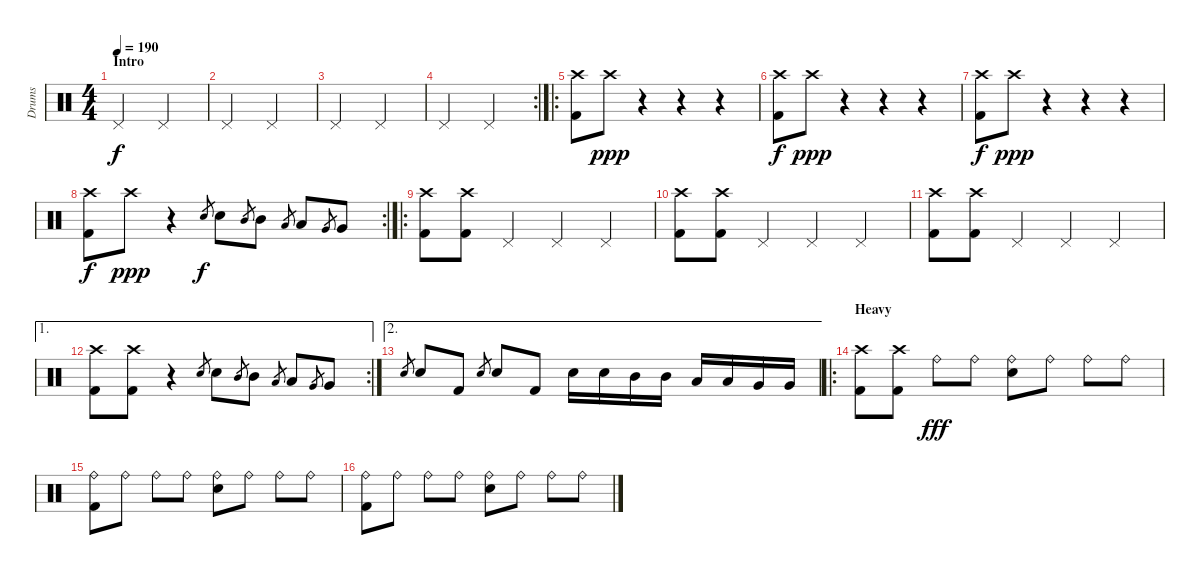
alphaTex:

\track ("Drums" "Drums") {instrument percussion}
\staff {score}
\articulation defaults
\ts (4 4)
\section ("" "Intro")
\tempo 190
\clef neutral
\ks c "Pedal Hi-Hat (hit)".2{dy f} "Pedal Hi-Hat (hit)".2
|
"Pedal Hi-Hat (hit)".2 "Pedal Hi-Hat (hit)".2 |
"Pedal Hi-Hat (hit)".2 "Pedal Hi-Hat (hit)".2 |
\rc 2 "Pedal Hi-Hat (hit)".2 "Pedal Hi-Hat (hit)".2
|
\ro
("Crash high (hit)" "Kick (hit) 2").8 "Crash high (hit)".8{dy ppp} r.4 r.4 r.4 |
("Crash high (hit)" "Kick (hit) 2").8{dy f} "Crash high (hit)".8{dy ppp} r.4 r.4 r.4 |
("Crash high (hit)" "Kick (hit) 2").8{dy f} "Crash high (hit)".8{dy ppp} r.4 r.4 r.4 |
\rc 2
("Crash high (hit)" "Kick (hit) 2").8{dy f} "Crash high (hit)".8{dy ppp} r.4 "Electric Snare (hit)".8{gr dy f} "Electric Snare (hit)".8 "Mid Tom (hit)".8{gr} "Mid Tom (hit)".8 "Low Tom (hit)".8{gr} "Low Tom (hit)".8 "Very Low Tom (hit)".8{gr} "Very Low Tom (hit)".8 |
\ro
("Crash high (hit)" "Kick (hit) 2").8 ("Crash high (hit)" "Kick (hit) 2").8 "Pedal Hi-Hat (hit)".4 "Pedal Hi-Hat (hit)".4 "Pedal Hi-Hat (hit)".4 |
("Crash high (hit)" "Kick (hit) 2").8 ("Crash high (hit)" "Kick (hit) 2").8 "Pedal Hi-Hat (hit)".4 "Pedal Hi-Hat (hit)".4 "Pedal Hi-Hat (hit)".4 |
("Crash high (hit)" "Kick (hit) 2").8 ("Crash high (hit)" "Kick (hit) 2").8 "Pedal Hi-Hat (hit)".4 "Pedal Hi-Hat (hit)".4 "Pedal Hi-Hat (hit)".4 |
\ae 1
\rc 2
("Crash high (hit)" "Kick (hit) 2").8 ("Crash high (hit)" "Kick (hit) 2").8 r.4 "Electric Snare (hit)".8{gr} "Electric Snare (hit)".8 "Mid Tom (hit)".8{gr} "Mid Tom (hit)".8 "Low Tom (hit)".8{gr} "Low Tom (hit)".8 "Very Low Tom (hit)".8{gr} "Very Low Tom (hit)".8 |
\ae 2 "Electric Snare (hit)".8{gr} "Electric Snare (hit)".8 "Kick (hit) 2".8 "Electric Snare (hit)".8{gr} "Electric Snare (hit)".8 "Kick (hit) 2".8 "Electric Snare (hit)".16 "Electric Snare (hit)".16 "Mid Tom (hit)".16 "Mid Tom (hit)".16 "Low Tom (hit)".16 "Low Tom (hit)".16 "Very Low Tom (hit)".16 "Very Low Tom (hit)".16
|
\ro
\section ("" "Heavy")
("Crash high (hit)" "Kick (hit) 2").8 ("Crash high (hit)" "Kick (hit) 2").8 "Ride (bell)".8{dy fff} "Ride (bell)".8 ("Ride (bell)" "Electric Snare (hit)").8 "Ride (bell)".8 "Ride (bell)".8 "Ride (bell)".8 |
("Ride (bell)" "Kick (hit) 2").8 "Ride (bell)".8 "Ride (bell)".8 "Ride (bell)".8 ("Ride (bell)" "Electric Snare (hit)").8 "Ride (bell)".8 "Ride (bell)".8 "Ride (bell)".8 |
("Ride (bell)" "Kick (hit) 2").8 "Ride (bell)".8 "Ride (bell)".8 "Ride (bell)".8 ("Ride (bell)" "Electric Snare (hit)").8 "Ride (bell)".8 "Ride (bell)".8 "Ride (bell)".8
